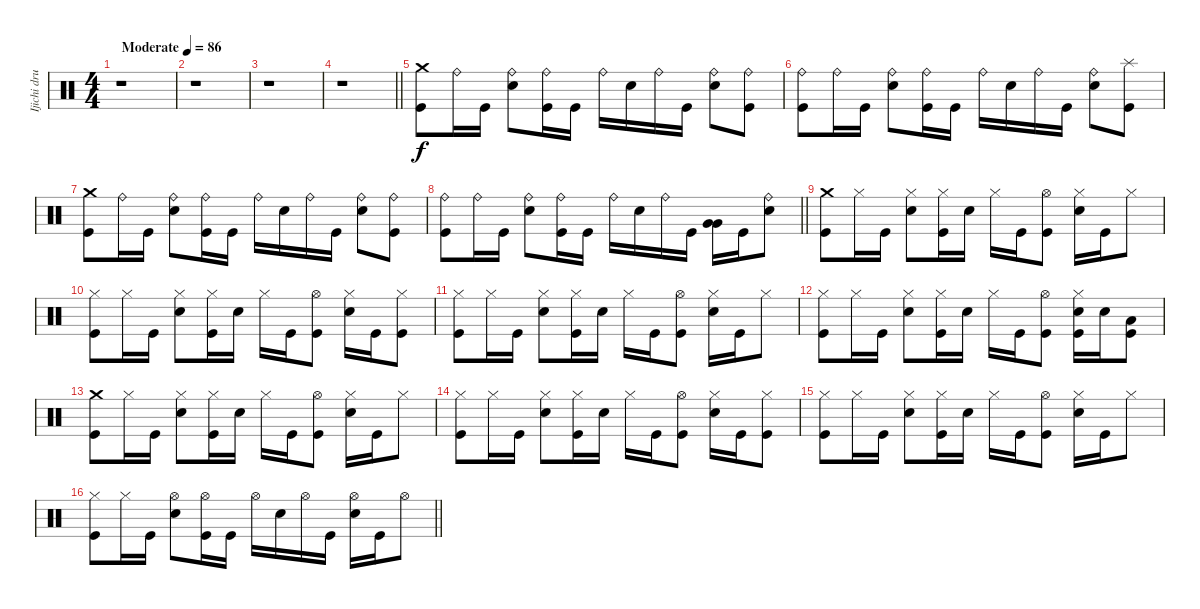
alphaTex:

\track ("Ijichi drums" "Ijichi dru") {instrument percussion}
\staff {score}
\articulation defaults
\ts (4 4)
\tempo (86 "Moderate")
\clef neutral
\ks c
r.1{dy f} |
r.1 |
r.1 |
\barLineRight lightlight
r.1 |
("Crash medium (hit)" "Kick (hit)").8 "Ride (bell)".16 "Kick (hit)".16 ("Ride (bell)" "Electric Snare (hit)").8 ("Ride (bell)" "Kick (hit)").16 "Kick (hit)".16 "Ride (bell)".16 "Electric Snare (hit)".16 "Ride (bell)".16 "Kick (hit)".16 ("Ride (bell)" "Electric Snare (hit)").8 ("Ride (bell)" "Kick (hit)").8 |
("Ride (bell)" "Kick (hit)").8 "Ride (bell)".16 "Kick (hit)".16 ("Ride (bell)" "Electric Snare (hit)").8 ("Ride (bell)" "Kick (hit)").16 "Kick (hit)".16 "Ride (bell)".16 "Electric Snare (hit)".16 "Ride (bell)".16 "Kick (hit)".16 ("Ride (bell)" "Electric Snare (hit)").8 ("Splash (hit)" "Kick (hit)").8 |
("Crash medium (hit)" "Kick (hit)").8 "Ride (bell)".16 "Kick (hit)".16 ("Ride (bell)" "Electric Snare (hit)").8 ("Ride (bell)" "Kick (hit)").16 "Kick (hit)".16 "Ride (bell)".16 "Electric Snare (hit)".16 "Ride (bell)".16 "Kick (hit)".16 ("Ride (bell)" "Electric Snare (hit)").8 ("Ride (bell)" "Kick (hit)").8 |
\barLineRight lightlight
("Ride (bell)" "Kick (hit)").8 "Ride (bell)".16 "Kick (hit)".16 ("Ride (bell)" "Electric Snare (hit)").8 ("Ride (bell)" "Kick (hit)").16 "Kick (hit)".16 "Ride (bell)".16 "Electric Snare (hit)".16 "Ride (bell)".16 "Kick (hit)".16 ("Very Low Tom (hit)" "Very Low Tom (hit)").16 "Kick (hit)".16 ("Ride (bell)" "Electric Snare (hit)").8 |
("Crash medium (hit)" "Kick (hit)").8 "Hi-Hat (closed)".16 "Kick (hit)".16 ("Hi-Hat (closed)" "Electric Snare (hit)").8 ("Hi-Hat (closed)" "Kick (hit)").16 "Electric Snare (hit)".16 "Hi-Hat (closed)".16 "Kick (hit)".16 ("Hi-Hat (open)" "Kick (hit)").8 ("Hi-Hat (closed)" "Electric Snare (hit)").16 "Kick (hit)".16 "Hi-Hat (closed)".8 |
("Hi-Hat (closed)" "Kick (hit)").8 "Hi-Hat (closed)".16 "Kick (hit)".16 ("Hi-Hat (closed)" "Electric Snare (hit)").8 ("Hi-Hat (closed)" "Kick (hit)").16 "Electric Snare (hit)".16 "Hi-Hat (closed)".16 "Kick (hit)".16 ("Hi-Hat (open)" "Kick (hit)").8 ("Hi-Hat (closed)" "Electric Snare (hit)").16 "Kick (hit)".16 ("Hi-Hat (closed)" "Kick (hit)").8 |
("Hi-Hat (closed)" "Kick (hit)").8 "Hi-Hat (closed)".16 "Kick (hit)".16 ("Hi-Hat (closed)" "Electric Snare (hit)").8 ("Hi-Hat (closed)" "Kick (hit)").16 "Electric Snare (hit)".16 "Hi-Hat (closed)".16 "Kick (hit)".16 ("Hi-Hat (open)" "Kick (hit)").8 ("Hi-Hat (closed)" "Electric Snare (hit)").16 "Kick (hit)".16 "Hi-Hat (closed)".8 |
("Hi-Hat (closed)" "Kick (hit)").8 "Hi-Hat (closed)".16 "Kick (hit)".16 ("Hi-Hat (closed)" "Electric Snare (hit)").8 ("Hi-Hat (closed)" "Kick (hit)").16 "Electric Snare (hit)".16 "Hi-Hat (closed)".16 "Kick (hit)".16 ("Hi-Hat (open)" "Kick (hit)").8 ("Hi-Hat (closed)" "Electric Snare (hit)" "Kick (hit)").16 "Electric Snare (hit)".16 ("Low Tom (hit)" "Kick (hit)").8 |
("Crash medium (hit)" "Kick (hit)").8 "Hi-Hat (closed)".16 "Kick (hit)".16 ("Hi-Hat (closed)" "Electric Snare (hit)").8 ("Hi-Hat (closed)" "Kick (hit)").16 "Electric Snare (hit)".16 "Hi-Hat (closed)".16 "Kick (hit)".16 ("Hi-Hat (open)" "Kick (hit)").8 ("Hi-Hat (closed)" "Electric Snare (hit)").16 "Kick (hit)".16 "Hi-Hat (closed)".8 |
("Hi-Hat (closed)" "Kick (hit)").8 "Hi-Hat (closed)".16 "Kick (hit)".16 ("Hi-Hat (closed)" "Electric Snare (hit)").8 ("Hi-Hat (closed)" "Kick (hit)").16 "Electric Snare (hit)".16 "Hi-Hat (closed)".16 "Kick (hit)".16 ("Hi-Hat (open)" "Kick (hit)").8 ("Hi-Hat (closed)" "Electric Snare (hit)").16 "Kick (hit)".16 ("Hi-Hat (closed)" "Kick (hit)").8 |
("Hi-Hat (closed)" "Kick (hit)").8 "Hi-Hat (closed)".16 "Kick (hit)".16 ("Hi-Hat (closed)" "Electric Snare (hit)").8 ("Hi-Hat (closed)" "Kick (hit)").16 "Electric Snare (hit)".16 "Hi-Hat (closed)".16 "Kick (hit)".16 ("Hi-Hat (open)" "Kick (hit)").8 ("Hi-Hat (closed)" "Electric Snare (hit)").16 "Kick (hit)".16 "Hi-Hat (closed)".8 |
\barLineRight lightlight
("Hi-Hat (closed)" "Kick (hit)").8 "Hi-Hat (closed)".16 "Kick (hit)".16 ("Hi-Hat (open)" "Electric Snare (hit)").8 ("Hi-Hat (open)" "Kick (hit)").16 "Kick (hit)".16 "Hi-Hat (open)".16 "Electric Snare (hit)".16 "Hi-Hat (open)".16 "Kick (hit)".16 ("Hi-Hat (open)" "Electric Snare (hit)").16 "Kick (hit)".16 "Hi-Hat (open)".8
